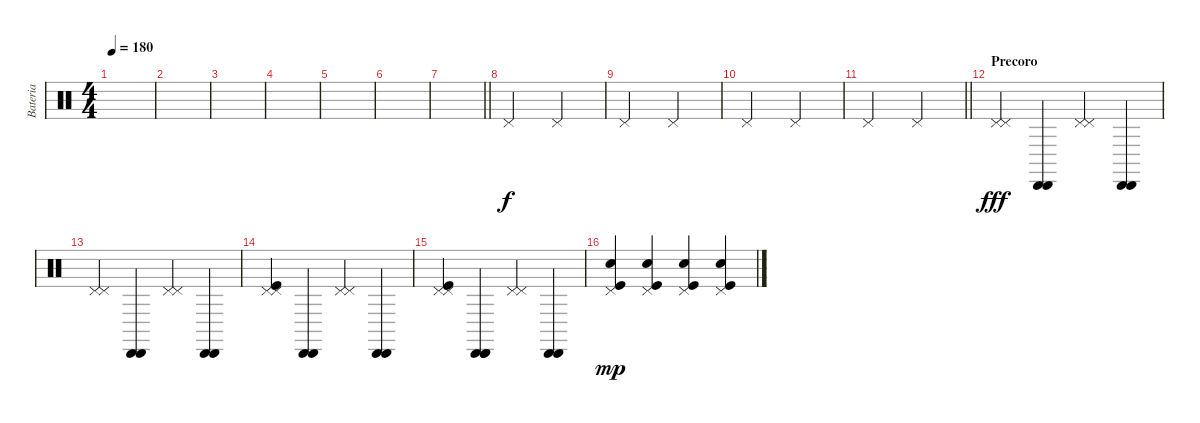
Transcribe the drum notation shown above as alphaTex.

\track ("Bateria" "Bateria") {instrument percussion}
\staff {score}
\articulation defaults
\ts (4 4)
\tempo 180
\clef neutral
\ks c
|
|
|
|
|
|
\barLineRight lightlight
|
"Pedal Hi-Hat (hit)".2 "Pedal Hi-Hat (hit)".2 |
"Pedal Hi-Hat (hit)".2 "Pedal Hi-Hat (hit)".2 |
"Pedal Hi-Hat (hit)".2 "Pedal Hi-Hat (hit)".2 |
\barLineRight lightlight "Pedal Hi-Hat (hit)".2 "Pedal Hi-Hat (hit)".2
|
\section ("" "Precoro")
("Pedal Hi-Hat (hit)" "Pedal Hi-Hat (hit)").4{dy fff} ("Cabasa (hit)" "Cabasa (hit)").4 ("Pedal Hi-Hat (hit)" "Pedal Hi-Hat (hit)").4 ("Cabasa (hit)" "Cabasa (hit)").4 |
("Pedal Hi-Hat (hit)" "Pedal Hi-Hat (hit)").4 ("Cabasa (hit)" "Cabasa (hit)").4 ("Pedal Hi-Hat (hit)" "Pedal Hi-Hat (hit)").4 ("Cabasa (hit)" "Cabasa (hit)").4 |
("Kick (hit)" "Pedal Hi-Hat (hit)" "Pedal Hi-Hat (hit)").4 ("Cabasa (hit)" "Cabasa (hit)").4 ("Pedal Hi-Hat (hit)" "Pedal Hi-Hat (hit)").4 ("Cabasa (hit)" "Cabasa (hit)").4 |
("Kick (hit)" "Pedal Hi-Hat (hit)" "Pedal Hi-Hat (hit)").4 ("Cabasa (hit)" "Cabasa (hit)" "Cabasa (hit)").4 ("Pedal Hi-Hat (hit)" "Pedal Hi-Hat (hit)").4 ("Cabasa (hit)" "Cabasa (hit)").4 |
("Pedal Hi-Hat (hit)" "Kick (hit)" "Electric Snare (hit)").4{dy mp} ("Pedal Hi-Hat (hit)" "Kick (hit)" "Electric Snare (hit)").4 ("Pedal Hi-Hat (hit)" "Kick (hit)" "Electric Snare (hit)").4 ("Pedal Hi-Hat (hit)" "Kick (hit)" "Electric Snare (hit)").4
